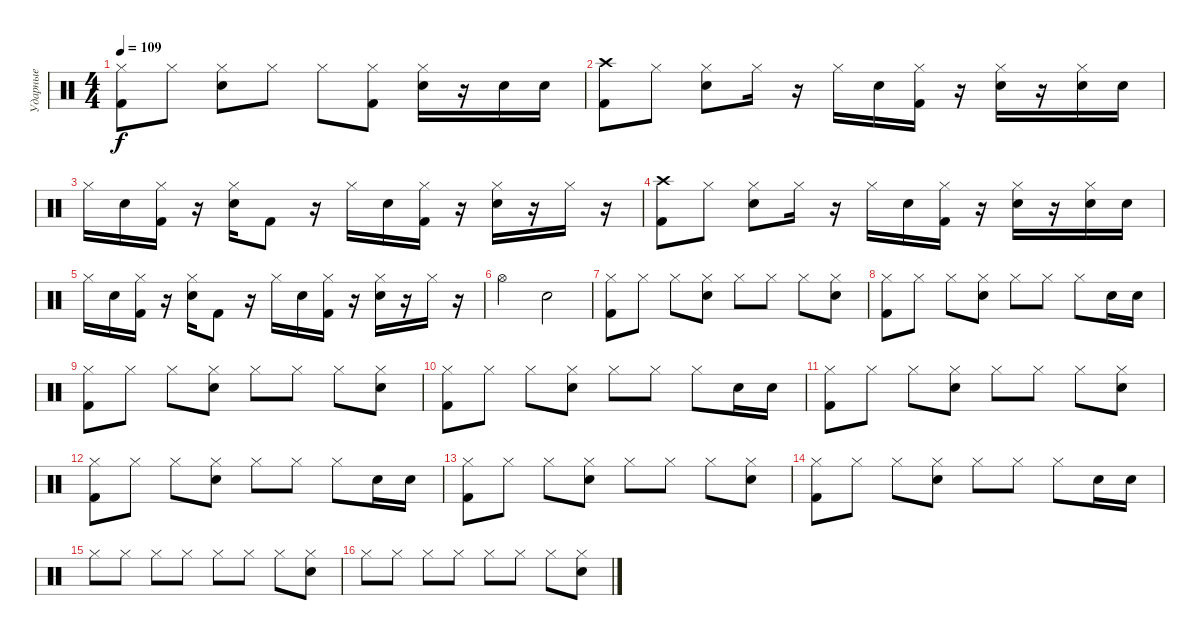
\track ("Ударные" "Ударные") {instrument percussion}
\staff {score}
\articulation defaults
\ts (4 4)
\tempo 109
\clef neutral
\ks c
("Kick (hit) 2" "Hi-Hat (closed)").8{dy f} "Hi-Hat (closed)".8 ("Electric Snare (hit)" "Hi-Hat (closed)").8 "Hi-Hat (closed)".8 "Hi-Hat (closed)".8 ("Kick (hit) 2" "Hi-Hat (closed)").8 ("Electric Snare (hit)" "Hi-Hat (closed)").16 r.16 "Electric Snare (hit)".16 "Electric Snare (hit)".16 |
("Kick (hit) 2" "Crash high (hit)").8 "Hi-Hat (closed)".8 ("Electric Snare (hit)" "Hi-Hat (closed)").8 "Hi-Hat (closed)".16 r.16 "Hi-Hat (closed)".16 "Electric Snare (hit)".16 ("Kick (hit) 2" "Hi-Hat (closed)").16 r.16 ("Electric Snare (hit)" "Hi-Hat (closed)").16 r.16 ("Electric Snare (hit)" "Hi-Hat (closed)").16 "Electric Snare (hit)".16 |
"Hi-Hat (closed)".16 "Electric Snare (hit)".16 ("Kick (hit) 2" "Hi-Hat (closed)").16 r.16 ("Electric Snare (hit)" "Hi-Hat (closed)").16 "Kick (hit) 2".8 r.16 "Hi-Hat (closed)".16 "Electric Snare (hit)".16 ("Kick (hit) 2" "Hi-Hat (closed)").16 r.16 ("Electric Snare (hit)" "Hi-Hat (closed)").16 r.16 "Hi-Hat (closed)".16 r.16 |
("Kick (hit) 2" "Crash high (hit)").8 "Hi-Hat (closed)".8 ("Electric Snare (hit)" "Hi-Hat (closed)").8 "Hi-Hat (closed)".16 r.16 "Hi-Hat (closed)".16 "Electric Snare (hit)".16 ("Kick (hit) 2" "Hi-Hat (closed)").16 r.16 ("Electric Snare (hit)" "Hi-Hat (closed)").16 r.16 ("Electric Snare (hit)" "Hi-Hat (closed)").16 "Electric Snare (hit)".16 |
"Hi-Hat (closed)".16 "Electric Snare (hit)".16 ("Kick (hit) 2" "Hi-Hat (closed)").16 r.16 ("Electric Snare (hit)" "Hi-Hat (closed)").16 "Kick (hit) 2".8 r.16 "Hi-Hat (closed)".16 "Electric Snare (hit)".16 ("Kick (hit) 2" "Hi-Hat (closed)").16 r.16 ("Electric Snare (hit)" "Hi-Hat (closed)").16 r.16 "Hi-Hat (closed)".16 r.16 |
"Hi-Hat (open)".2 "Electric Snare (hit)".2 |
("Kick (hit) 2" "Hi-Hat (closed)").8 "Hi-Hat (closed)".8 "Hi-Hat (closed)".8 ("Electric Snare (hit)" "Hi-Hat (closed)").8 "Hi-Hat (closed)".8 "Hi-Hat (closed)".8 "Hi-Hat (closed)".8 ("Electric Snare (hit)" "Hi-Hat (closed)").8 |
("Kick (hit) 2" "Hi-Hat (closed)").8 "Hi-Hat (closed)".8 "Hi-Hat (closed)".8 ("Electric Snare (hit)" "Hi-Hat (closed)").8 "Hi-Hat (closed)".8 "Hi-Hat (closed)".8 "Hi-Hat (closed)".8 "Electric Snare (hit)".16 "Electric Snare (hit)".16 |
("Kick (hit) 2" "Hi-Hat (closed)").8 "Hi-Hat (closed)".8 "Hi-Hat (closed)".8 ("Electric Snare (hit)" "Hi-Hat (closed)").8 "Hi-Hat (closed)".8 "Hi-Hat (closed)".8 "Hi-Hat (closed)".8 ("Electric Snare (hit)" "Hi-Hat (closed)").8 |
("Kick (hit) 2" "Hi-Hat (closed)").8 "Hi-Hat (closed)".8 "Hi-Hat (closed)".8 ("Electric Snare (hit)" "Hi-Hat (closed)").8 "Hi-Hat (closed)".8 "Hi-Hat (closed)".8 "Hi-Hat (closed)".8 "Electric Snare (hit)".16 "Electric Snare (hit)".16 |
("Kick (hit) 2" "Hi-Hat (closed)").8 "Hi-Hat (closed)".8 "Hi-Hat (closed)".8 ("Electric Snare (hit)" "Hi-Hat (closed)").8 "Hi-Hat (closed)".8 "Hi-Hat (closed)".8 "Hi-Hat (closed)".8 ("Electric Snare (hit)" "Hi-Hat (closed)").8 |
("Kick (hit) 2" "Hi-Hat (closed)").8 "Hi-Hat (closed)".8 "Hi-Hat (closed)".8 ("Electric Snare (hit)" "Hi-Hat (closed)").8 "Hi-Hat (closed)".8 "Hi-Hat (closed)".8 "Hi-Hat (closed)".8 "Electric Snare (hit)".16 "Electric Snare (hit)".16 |
("Kick (hit) 2" "Hi-Hat (closed)").8 "Hi-Hat (closed)".8 "Hi-Hat (closed)".8 ("Electric Snare (hit)" "Hi-Hat (closed)").8 "Hi-Hat (closed)".8 "Hi-Hat (closed)".8 "Hi-Hat (closed)".8 ("Electric Snare (hit)" "Hi-Hat (closed)").8 |
("Kick (hit) 2" "Hi-Hat (closed)").8 "Hi-Hat (closed)".8 "Hi-Hat (closed)".8 ("Electric Snare (hit)" "Hi-Hat (closed)").8 "Hi-Hat (closed)".8 "Hi-Hat (closed)".8 "Hi-Hat (closed)".8 "Electric Snare (hit)".16 "Electric Snare (hit)".16 |
"Hi-Hat (closed)".8 "Hi-Hat (closed)".8 "Hi-Hat (closed)".8 "Hi-Hat (closed)".8 "Hi-Hat (closed)".8 "Hi-Hat (closed)".8 "Hi-Hat (closed)".8 ("Electric Snare (hit)" "Hi-Hat (closed)").8 |
"Hi-Hat (closed)".8 "Hi-Hat (closed)".8 "Hi-Hat (closed)".8 "Hi-Hat (closed)".8 "Hi-Hat (closed)".8 "Hi-Hat (closed)".8 "Hi-Hat (closed)".8 ("Electric Snare (hit)" "Hi-Hat (closed)").8
